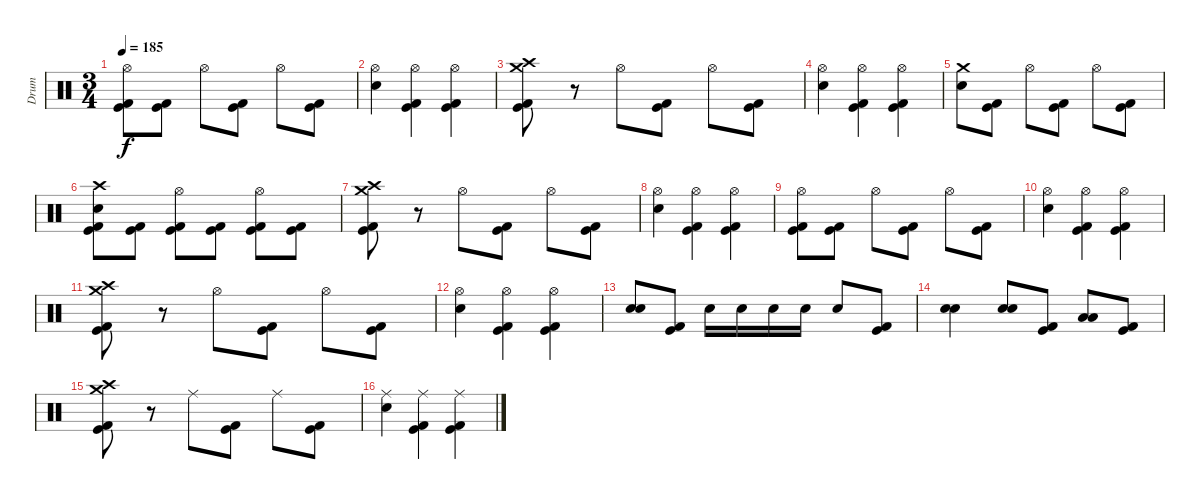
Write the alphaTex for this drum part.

\track ("Drum" "Drum") {instrument percussion}
\staff {score}
\articulation defaults
\ts (3 4)
\tempo 185
\clef neutral
\ks c
("Hi-Hat (open)" "Kick (hit)" "Kick (hit) 2").8{dy f} ("Kick (hit)" "Kick (hit) 2").8 "Hi-Hat (open)".8 ("Kick (hit)" "Kick (hit) 2").8 "Hi-Hat (open)".8 ("Kick (hit)" "Kick (hit) 2").8 |
("Hi-Hat (open)" "Electric Snare (hit)").4 ("Hi-Hat (open)" "Kick (hit)" "Kick (hit) 2").4 ("Hi-Hat (open)" "Kick (hit)" "Kick (hit) 2").4 |
("Crash medium (hit)" "Crash high (hit)" "Kick (hit)" "Kick (hit) 2").8 r.8 "Hi-Hat (open)".8 ("Kick (hit)" "Kick (hit) 2").8 "Hi-Hat (open)".8 ("Kick (hit)" "Kick (hit) 2").8 |
("Hi-Hat (open)" "Electric Snare (hit)").4 ("Hi-Hat (open)" "Kick (hit)" "Kick (hit) 2").4 ("Hi-Hat (open)" "Kick (hit)" "Kick (hit) 2").4 |
("Crash medium (hit)" "Electric Snare (hit)").8 ("Kick (hit)" "Kick (hit) 2").8 "Hi-Hat (open)".8 ("Kick (hit)" "Kick (hit) 2").8 "Hi-Hat (open)".8 ("Kick (hit)" "Kick (hit) 2").8 |
("Crash high (hit)" "Electric Snare (hit)" "Kick (hit)" "Kick (hit) 2").8 ("Kick (hit)" "Kick (hit) 2").8 ("Hi-Hat (open)" "Kick (hit)" "Kick (hit) 2").8 ("Kick (hit)" "Kick (hit) 2").8 ("Hi-Hat (open)" "Kick (hit)" "Kick (hit) 2").8 ("Kick (hit)" "Kick (hit) 2").8 |
("Crash medium (hit)" "Crash high (hit)" "Kick (hit)" "Kick (hit) 2").8 r.8 "Hi-Hat (open)".8 ("Kick (hit)" "Kick (hit) 2").8 "Hi-Hat (open)".8 ("Kick (hit)" "Kick (hit) 2").8 |
("Hi-Hat (open)" "Electric Snare (hit)").4 ("Hi-Hat (open)" "Kick (hit)" "Kick (hit) 2").4 ("Hi-Hat (open)" "Kick (hit)" "Kick (hit) 2").4 |
("Hi-Hat (open)" "Kick (hit)" "Kick (hit) 2").8 ("Kick (hit)" "Kick (hit) 2").8 "Hi-Hat (open)".8 ("Kick (hit)" "Kick (hit) 2").8 "Hi-Hat (open)".8 ("Kick (hit)" "Kick (hit) 2").8 |
("Hi-Hat (open)" "Electric Snare (hit)").4 ("Hi-Hat (open)" "Kick (hit)" "Kick (hit) 2").4 ("Hi-Hat (open)" "Kick (hit)" "Kick (hit) 2").4 |
("Crash medium (hit)" "Crash high (hit)" "Kick (hit)" "Kick (hit) 2").8 r.8 "Hi-Hat (open)".8 ("Kick (hit)" "Kick (hit) 2").8 "Hi-Hat (open)".8 ("Kick (hit)" "Kick (hit) 2").8 |
("Hi-Hat (open)" "Electric Snare (hit)").4 ("Hi-Hat (open)" "Kick (hit)" "Kick (hit) 2").4 ("Hi-Hat (open)" "Kick (hit)" "Kick (hit) 2").4 |
("Electric Snare (hit)" "Electric Snare (hit)").8{bu 480} ("Kick (hit)" "Kick (hit) 2").8 "Electric Snare (hit)".16 "Electric Snare (hit)".16 "Electric Snare (hit)".16 "Electric Snare (hit)".16 "Electric Snare (hit)".8 ("Kick (hit)" "Kick (hit) 2").8 |
("Electric Snare (hit)" "Electric Snare (hit)").4{bu 480} ("Electric Snare (hit)" "Electric Snare (hit)").8{bu 480} ("Kick (hit)" "Kick (hit) 2").8 ("Low Tom (hit)" "Low Floor Tom (hit)").8{bd 480} ("Kick (hit)" "Kick (hit) 2").8 |
("Crash medium (hit)" "Crash high (hit)" "Kick (hit)" "Kick (hit) 2").8 r.8 "Ride (middle)".8 ("Kick (hit)" "Kick (hit) 2").8 "Ride (middle)".8 ("Kick (hit)" "Kick (hit) 2").8 |
("Ride (middle)" "Electric Snare (hit)").4 ("Ride (middle)" "Kick (hit)" "Kick (hit) 2").4 ("Ride (middle)" "Kick (hit)" "Kick (hit) 2").4
